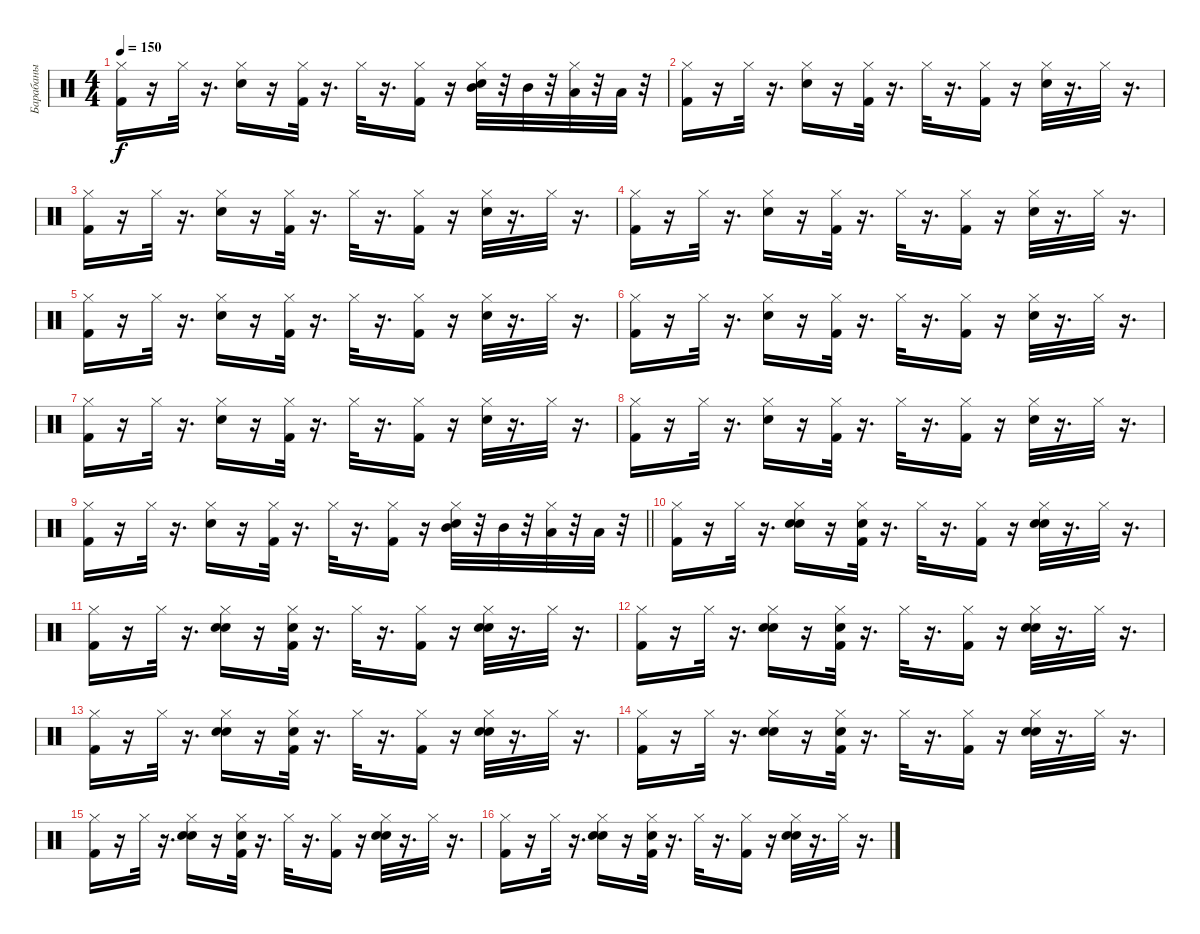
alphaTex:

\track ("Барабаны" "Барабаны") {instrument percussion}
\staff {score}
\articulation defaults
\ts (4 4)
\tempo 150
\clef neutral
\ks c
("Kick (hit) 2" "Hi-Hat (closed)").16{dy f} r.16 "Hi-Hat (closed)".32 r.16{d} ("Electric Snare (hit)" "Hi-Hat (closed)").16 r.16 ("Kick (hit) 2" "Hi-Hat (closed)").32 r.16{d} "Hi-Hat (closed)".32 r.16{d} ("Kick (hit) 2" "Hi-Hat (closed)").16 r.16 ("Electric Snare (hit)" "Mid Tom (hit)" "Hi-Hat (closed)").32 r.32 "Mid Tom (hit)".32 r.32 ("Hi-Hat (closed)" "Low Tom (hit)").32 r.32 "Low Tom (hit)".32 r.32 |
("Hi-Hat (closed)" "Kick (hit) 2").16 r.16 "Hi-Hat (closed)".32 r.16{d} ("Electric Snare (hit)" "Hi-Hat (closed)").16 r.16 ("Hi-Hat (closed)" "Kick (hit) 2").32 r.16{d} "Hi-Hat (closed)".32 r.16{d} ("Kick (hit) 2" "Hi-Hat (closed)").16 r.16 ("Electric Snare (hit)" "Hi-Hat (closed)").32 r.16{d} "Hi-Hat (closed)".32 r.16{d} |
("Kick (hit) 2" "Hi-Hat (closed)").16 r.16 "Hi-Hat (closed)".32 r.16{d} ("Electric Snare (hit)" "Hi-Hat (closed)").16 r.16 ("Kick (hit) 2" "Hi-Hat (closed)").32 r.16{d} "Hi-Hat (closed)".32 r.16{d} ("Kick (hit) 2" "Hi-Hat (closed)").16 r.16 ("Electric Snare (hit)" "Hi-Hat (closed)").32 r.16{d} "Hi-Hat (closed)".32 r.16{d} |
("Hi-Hat (closed)" "Kick (hit) 2").16 r.16 "Hi-Hat (closed)".32 r.16{d} ("Electric Snare (hit)" "Hi-Hat (closed)").16 r.16 ("Kick (hit) 2" "Hi-Hat (closed)").32 r.16{d} "Hi-Hat (closed)".32 r.16{d} ("Kick (hit) 2" "Hi-Hat (closed)").16 r.16 ("Electric Snare (hit)" "Hi-Hat (closed)").32 r.16{d} "Hi-Hat (closed)".32 r.16{d} |
("Kick (hit) 2" "Hi-Hat (closed)").16 r.16 "Hi-Hat (closed)".32 r.16{d} ("Electric Snare (hit)" "Hi-Hat (closed)").16 r.16 ("Kick (hit) 2" "Hi-Hat (closed)").32 r.16{d} "Hi-Hat (closed)".32 r.16{d} ("Kick (hit) 2" "Hi-Hat (closed)").16 r.16 ("Electric Snare (hit)" "Hi-Hat (closed)").32 r.16{d} "Hi-Hat (closed)".32 r.16{d} |
("Hi-Hat (closed)" "Kick (hit) 2").16 r.16 "Hi-Hat (closed)".32 r.16{d} ("Electric Snare (hit)" "Hi-Hat (closed)").16 r.16 ("Hi-Hat (closed)" "Kick (hit) 2").32 r.16{d} "Hi-Hat (closed)".32 r.16{d} ("Hi-Hat (closed)" "Kick (hit) 2").16 r.16 ("Hi-Hat (closed)" "Electric Snare (hit)").32 r.16{d} "Hi-Hat (closed)".32 r.16{d} |
("Kick (hit) 2" "Hi-Hat (closed)").16 r.16 "Hi-Hat (closed)".32 r.16{d} ("Electric Snare (hit)" "Hi-Hat (closed)").16 r.16 ("Kick (hit) 2" "Hi-Hat (closed)").32 r.16{d} "Hi-Hat (closed)".32 r.16{d} ("Kick (hit) 2" "Hi-Hat (closed)").16 r.16 ("Electric Snare (hit)" "Hi-Hat (closed)").32 r.16{d} "Hi-Hat (closed)".32 r.16{d} |
("Kick (hit) 2" "Hi-Hat (closed)").16 r.16 "Hi-Hat (closed)".32 r.16{d} ("Electric Snare (hit)" "Hi-Hat (closed)").16 r.16 ("Kick (hit) 2" "Hi-Hat (closed)").32 r.16{d} "Hi-Hat (closed)".32 r.16{d} ("Kick (hit) 2" "Hi-Hat (closed)").16 r.16 ("Electric Snare (hit)" "Hi-Hat (closed)").32 r.16{d} "Hi-Hat (closed)".32 r.16{d} |
\barLineRight lightlight
("Hi-Hat (closed)" "Kick (hit) 2").16 r.16 "Hi-Hat (closed)".32 r.16{d} ("Electric Snare (hit)" "Hi-Hat (closed)").16 r.16 ("Kick (hit) 2" "Hi-Hat (closed)").32 r.16{d} "Hi-Hat (closed)".32 r.16{d} ("Kick (hit) 2" "Hi-Hat (closed)").16 r.16 ("Electric Snare (hit)" "Mid Tom (hit)" "Hi-Hat (closed)").32 r.32 "Mid Tom (hit)".32 r.32 ("Hi-Hat (closed)" "Low Tom (hit)").32 r.32 "Low Tom (hit)".32 r.32 |
("Hi-Hat (closed)" "Kick (hit) 2").16 r.16 "Hi-Hat (closed)".32 r.16{d} ("Hi-Hat (closed)" "Hand Clap (hit)" "Electric Snare (hit)").16 r.16 ("Hand Clap (hit)" "Hi-Hat (closed)" "Kick (hit) 2").32 r.16{d} "Hi-Hat (closed)".32 r.16{d} ("Hi-Hat (closed)" "Kick (hit) 2").16 r.16 ("Hand Clap (hit)" "Hi-Hat (closed)" "Electric Snare (hit)").32 r.16{d} "Hi-Hat (closed)".32 r.16{d} |
("Kick (hit) 2" "Hi-Hat (closed)").16 r.16 "Hi-Hat (closed)".32 r.16{d} ("Electric Snare (hit)" "Hi-Hat (closed)" "Hand Clap (hit)").16 r.16 ("Kick (hit) 2" "Hand Clap (hit)" "Hi-Hat (closed)").32 r.16{d} "Hi-Hat (closed)".32 r.16{d} ("Kick (hit) 2" "Hi-Hat (closed)").16 r.16 ("Electric Snare (hit)" "Hand Clap (hit)" "Hi-Hat (closed)").32 r.16{d} "Hi-Hat (closed)".32 r.16{d} |
("Hi-Hat (closed)" "Kick (hit) 2").16 r.16 "Hi-Hat (closed)".32 r.16{d} ("Electric Snare (hit)" "Hi-Hat (closed)" "Hand Clap (hit)").16 r.16 ("Kick (hit) 2" "Hi-Hat (closed)" "Hand Clap (hit)").32 r.16{d} "Hi-Hat (closed)".32 r.16{d} ("Kick (hit) 2" "Hi-Hat (closed)").16 r.16 ("Electric Snare (hit)" "Hi-Hat (closed)" "Hand Clap (hit)").32 r.16{d} "Hi-Hat (closed)".32 r.16{d} |
("Hi-Hat (closed)" "Kick (hit) 2").16 r.16 "Hi-Hat (closed)".32 r.16{d} ("Electric Snare (hit)" "Hi-Hat (closed)" "Hand Clap (hit)").16 r.16 ("Kick (hit) 2" "Hand Clap (hit)" "Hi-Hat (closed)").32 r.16{d} "Hi-Hat (closed)".32 r.16{d} ("Kick (hit) 2" "Hi-Hat (closed)").16 r.16 ("Electric Snare (hit)" "Hi-Hat (closed)" "Hand Clap (hit)").32 r.16{d} "Hi-Hat (closed)".32 r.16{d} |
("Hi-Hat (closed)" "Kick (hit) 2").16 r.16 "Hi-Hat (closed)".32 r.16{d} ("Hi-Hat (closed)" "Electric Snare (hit)" "Hand Clap (hit)").16 r.16 ("Kick (hit) 2" "Hi-Hat (closed)" "Hand Clap (hit)").32 r.16{d} "Hi-Hat (closed)".32 r.16{d} ("Hi-Hat (closed)" "Kick (hit) 2").16 r.16 ("Hi-Hat (closed)" "Hand Clap (hit)" "Electric Snare (hit)").32 r.16{d} "Hi-Hat (closed)".32 r.16{d} |
("Kick (hit) 2" "Hi-Hat (closed)").16 r.16 "Hi-Hat (closed)".32 r.16{d} ("Electric Snare (hit)" "Hand Clap (hit)" "Hi-Hat (closed)").16 r.16 ("Kick (hit) 2" "Hand Clap (hit)" "Hi-Hat (closed)").32 r.16{d} "Hi-Hat (closed)".32 r.16{d} ("Kick (hit) 2" "Hi-Hat (closed)").16 r.16 ("Electric Snare (hit)" "Hand Clap (hit)" "Hi-Hat (closed)").32 r.16{d} "Hi-Hat (closed)".32 r.16{d} |
("Kick (hit) 2" "Hi-Hat (closed)").16 r.16 "Hi-Hat (closed)".32 r.16{d} ("Electric Snare (hit)" "Hand Clap (hit)" "Hi-Hat (closed)").16 r.16 ("Kick (hit) 2" "Hi-Hat (closed)" "Hand Clap (hit)").32 r.16{d} "Hi-Hat (closed)".32 r.16{d} ("Kick (hit) 2" "Hi-Hat (closed)").16 r.16 ("Electric Snare (hit)" "Hi-Hat (closed)" "Hand Clap (hit)").32 r.16{d} "Hi-Hat (closed)".32 r.16{d}
